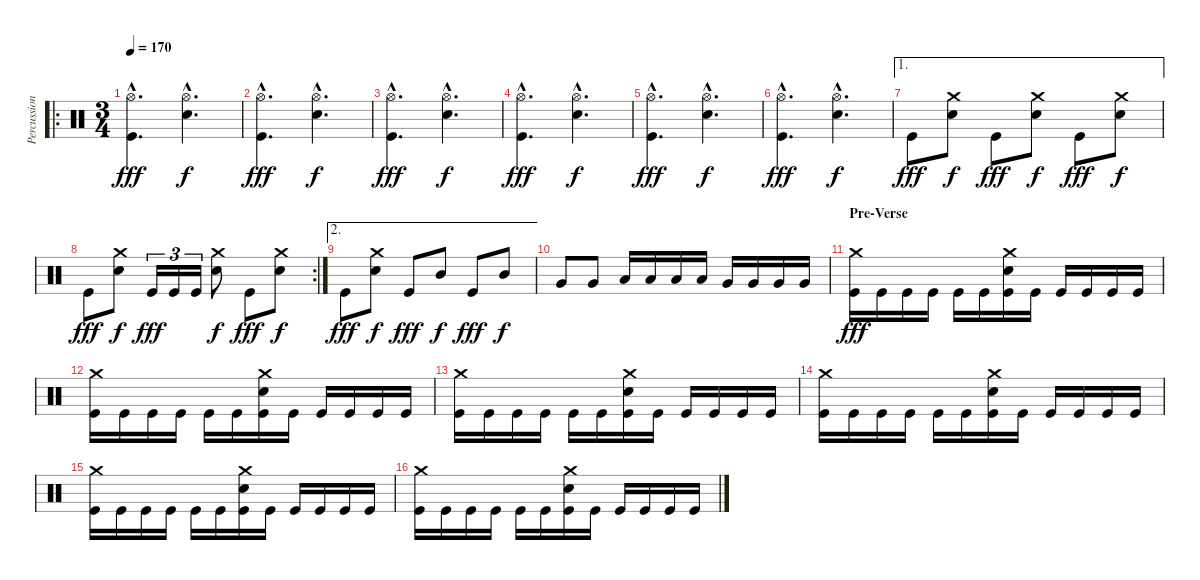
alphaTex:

\track ("Percussion" "Percussion") {instrument percussion}
\staff {score}
\articulation defaults
\ro
\ts (3 4)
\tempo 170
\clef neutral
\ks c
("Hi-Hat (open)"{hac} "Kick (hit)"{hac}).4{d dy fff} ("Hi-Hat (open)"{hac} "Electric Snare (hit)"{hac}).4{d dy f} |
("Hi-Hat (open)"{hac} "Kick (hit)"{hac}).4{d dy fff} ("Hi-Hat (open)"{hac} "Electric Snare (hit)"{hac}).4{d dy f} |
("Hi-Hat (open)"{hac} "Kick (hit)"{hac}).4{d dy fff} ("Hi-Hat (open)"{hac} "Electric Snare (hit)"{hac}).4{d dy f} |
("Hi-Hat (open)"{hac} "Kick (hit)"{hac}).4{d dy fff} ("Hi-Hat (open)"{hac} "Electric Snare (hit)"{hac}).4{d dy f} |
("Hi-Hat (open)"{hac} "Kick (hit)"{hac}).4{d dy fff} ("Hi-Hat (open)"{hac} "Electric Snare (hit)"{hac}).4{d dy f} |
("Hi-Hat (open)"{hac} "Kick (hit)"{hac}).4{d dy fff} ("Hi-Hat (open)"{hac} "Electric Snare (hit)"{hac}).4{d dy f} |
\ae 1 "Kick (hit)".8{dy fff}
("Crash medium (hit)" "Electric Snare (hit)").8{dy f} "Kick (hit)".8{dy fff} ("Crash medium (hit)" "Electric Snare (hit)").8{dy f} "Kick (hit)".8{dy fff} ("Crash medium (hit)" "Electric Snare (hit)").8{dy f} |
\rc 2 "Kick (hit)".8{dy fff}
("Crash medium (hit)" "Electric Snare (hit)").8{dy f} "Kick (hit)".16{tu (3 2) dy fff} "Kick (hit)".16{tu (3 2)} "Kick (hit)".16{tu (3 2)} ("Crash medium (hit)" "Electric Snare (hit)").8{dy f} "Kick (hit)".8{dy fff} ("Crash medium (hit)" "Electric Snare (hit)").8{dy f} |
\ae 2 "Kick (hit)".8{dy fff}
("Crash medium (hit)" "Electric Snare (hit)").8{dy f} "Kick (hit)".8{dy fff} "Mid Tom (hit)".8{dy f} "Kick (hit)".8{dy fff} "Mid Tom (hit)".8{dy f} |
"Very Low Tom (hit)".8 "Very Low Tom (hit)".8 "Low Tom (hit)".16 "Low Tom (hit)".16 "Low Tom (hit)".16 "Low Tom (hit)".16 "Very Low Tom (hit)".16 "Very Low Tom (hit)".16 "Very Low Tom (hit)".16 "Very Low Tom (hit)".16 |
\section ("" "Pre-Verse")
("Crash medium (hit)" "Kick (hit)").16{dy fff} "Kick (hit)".16 "Kick (hit)".16 "Kick (hit)".16 "Kick (hit)".16 "Kick (hit)".16 ("Crash medium (hit)" "Electric Snare (hit)" "Kick (hit)").16 "Kick (hit)".16 "Kick (hit)".16 "Kick (hit)".16 "Kick (hit)".16 "Kick (hit)".16 |
("Crash medium (hit)" "Kick (hit)").16 "Kick (hit)".16 "Kick (hit)".16 "Kick (hit)".16 "Kick (hit)".16 "Kick (hit)".16 ("Crash medium (hit)" "Electric Snare (hit)" "Kick (hit)").16 "Kick (hit)".16 "Kick (hit)".16 "Kick (hit)".16 "Kick (hit)".16 "Kick (hit)".16 |
("Crash medium (hit)" "Kick (hit)").16 "Kick (hit)".16 "Kick (hit)".16 "Kick (hit)".16 "Kick (hit)".16 "Kick (hit)".16 ("Crash medium (hit)" "Electric Snare (hit)" "Kick (hit)").16 "Kick (hit)".16 "Kick (hit)".16 "Kick (hit)".16 "Kick (hit)".16 "Kick (hit)".16 |
("Crash medium (hit)" "Kick (hit)").16 "Kick (hit)".16 "Kick (hit)".16 "Kick (hit)".16 "Kick (hit)".16 "Kick (hit)".16 ("Crash medium (hit)" "Electric Snare (hit)" "Kick (hit)").16 "Kick (hit)".16 "Kick (hit)".16 "Kick (hit)".16 "Kick (hit)".16 "Kick (hit)".16 |
("Crash medium (hit)" "Kick (hit)").16 "Kick (hit)".16 "Kick (hit)".16 "Kick (hit)".16 "Kick (hit)".16 "Kick (hit)".16 ("Crash medium (hit)" "Electric Snare (hit)" "Kick (hit)").16 "Kick (hit)".16 "Kick (hit)".16 "Kick (hit)".16 "Kick (hit)".16 "Kick (hit)".16 |
("Crash medium (hit)" "Kick (hit)").16 "Kick (hit)".16 "Kick (hit)".16 "Kick (hit)".16 "Kick (hit)".16 "Kick (hit)".16 ("Crash medium (hit)" "Electric Snare (hit)" "Kick (hit)").16 "Kick (hit)".16 "Kick (hit)".16 "Kick (hit)".16 "Kick (hit)".16 "Kick (hit)".16
